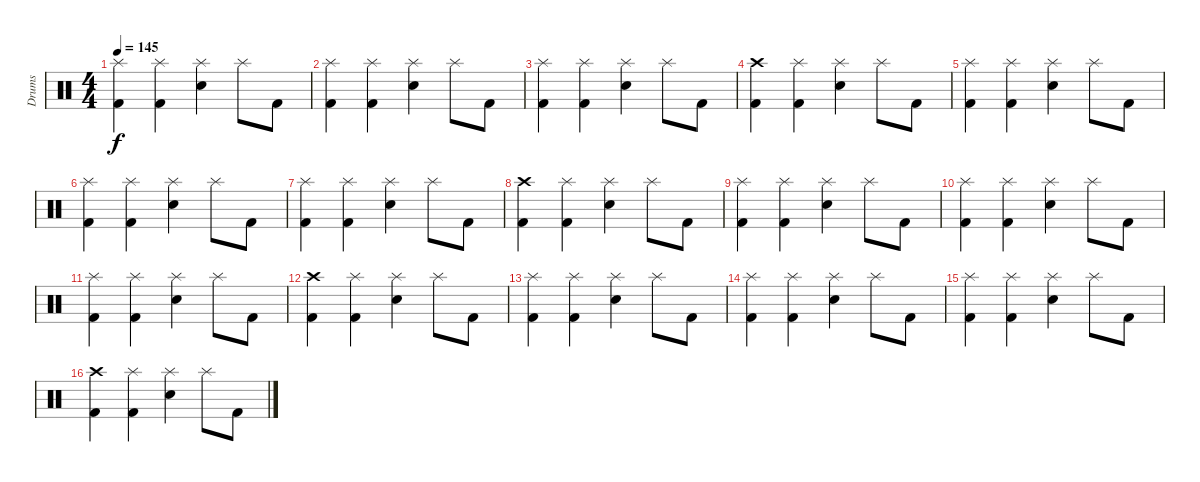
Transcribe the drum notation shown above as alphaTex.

\track ("Drums" "Drums") {instrument percussion}
\staff {score}
\articulation defaults
\ts (4 4)
\tempo 145
\clef neutral
\ks c
("Kick (hit) 2" "Splash (hit)").4{dy f} ("Kick (hit) 2" "Splash (hit)").4 ("Snare (hit) 2" "Splash (hit)").4 "Splash (hit)".8 "Kick (hit) 2".8 |
("Kick (hit) 2" "Splash (hit)").4 ("Kick (hit) 2" "Splash (hit)").4 ("Snare (hit) 2" "Splash (hit)").4 "Splash (hit)".8 "Kick (hit) 2".8 |
("Kick (hit) 2" "Splash (hit)").4 ("Kick (hit) 2" "Splash (hit)").4 ("Snare (hit) 2" "Splash (hit)").4 "Splash (hit)".8 "Kick (hit) 2".8 |
("Kick (hit) 2" "Crash high (hit)").4 ("Kick (hit) 2" "Splash (hit)").4 ("Snare (hit) 2" "Splash (hit)").4 "Splash (hit)".8 "Kick (hit) 2".8 |
("Kick (hit) 2" "Splash (hit)").4 ("Kick (hit) 2" "Splash (hit)").4 ("Snare (hit) 2" "Splash (hit)").4 "Splash (hit)".8 "Kick (hit) 2".8 |
("Kick (hit) 2" "Splash (hit)").4 ("Kick (hit) 2" "Splash (hit)").4 ("Snare (hit) 2" "Splash (hit)").4 "Splash (hit)".8 "Kick (hit) 2".8 |
("Kick (hit) 2" "Splash (hit)").4 ("Kick (hit) 2" "Splash (hit)").4 ("Snare (hit) 2" "Splash (hit)").4 "Splash (hit)".8 "Kick (hit) 2".8 |
("Kick (hit) 2" "Crash high (hit)").4 ("Kick (hit) 2" "Splash (hit)").4 ("Snare (hit) 2" "Splash (hit)").4 "Splash (hit)".8 "Kick (hit) 2".8 |
("Kick (hit) 2" "Splash (hit)").4 ("Kick (hit) 2" "Splash (hit)").4 ("Snare (hit) 2" "Splash (hit)").4 "Splash (hit)".8 "Kick (hit) 2".8 |
("Kick (hit) 2" "Splash (hit)").4 ("Kick (hit) 2" "Splash (hit)").4 ("Snare (hit) 2" "Splash (hit)").4 "Splash (hit)".8 "Kick (hit) 2".8 |
("Kick (hit) 2" "Splash (hit)").4 ("Kick (hit) 2" "Splash (hit)").4 ("Snare (hit) 2" "Splash (hit)").4 "Splash (hit)".8 "Kick (hit) 2".8 |
("Kick (hit) 2" "Crash high (hit)").4 ("Kick (hit) 2" "Splash (hit)").4 ("Snare (hit) 2" "Splash (hit)").4 "Splash (hit)".8 "Kick (hit) 2".8 |
("Kick (hit) 2" "Splash (hit)").4 ("Kick (hit) 2" "Splash (hit)").4 ("Snare (hit) 2" "Splash (hit)").4 "Splash (hit)".8 "Kick (hit) 2".8 |
("Kick (hit) 2" "Splash (hit)").4 ("Kick (hit) 2" "Splash (hit)").4 ("Snare (hit) 2" "Splash (hit)").4 "Splash (hit)".8 "Kick (hit) 2".8 |
("Kick (hit) 2" "Splash (hit)").4 ("Kick (hit) 2" "Splash (hit)").4 ("Snare (hit) 2" "Splash (hit)").4 "Splash (hit)".8 "Kick (hit) 2".8 |
("Kick (hit) 2" "Crash high (hit)").4{volume 10} ("Kick (hit) 2" "Splash (hit)").4 ("Snare (hit) 2" "Splash (hit)").4 "Splash (hit)".8 "Kick (hit) 2".8
